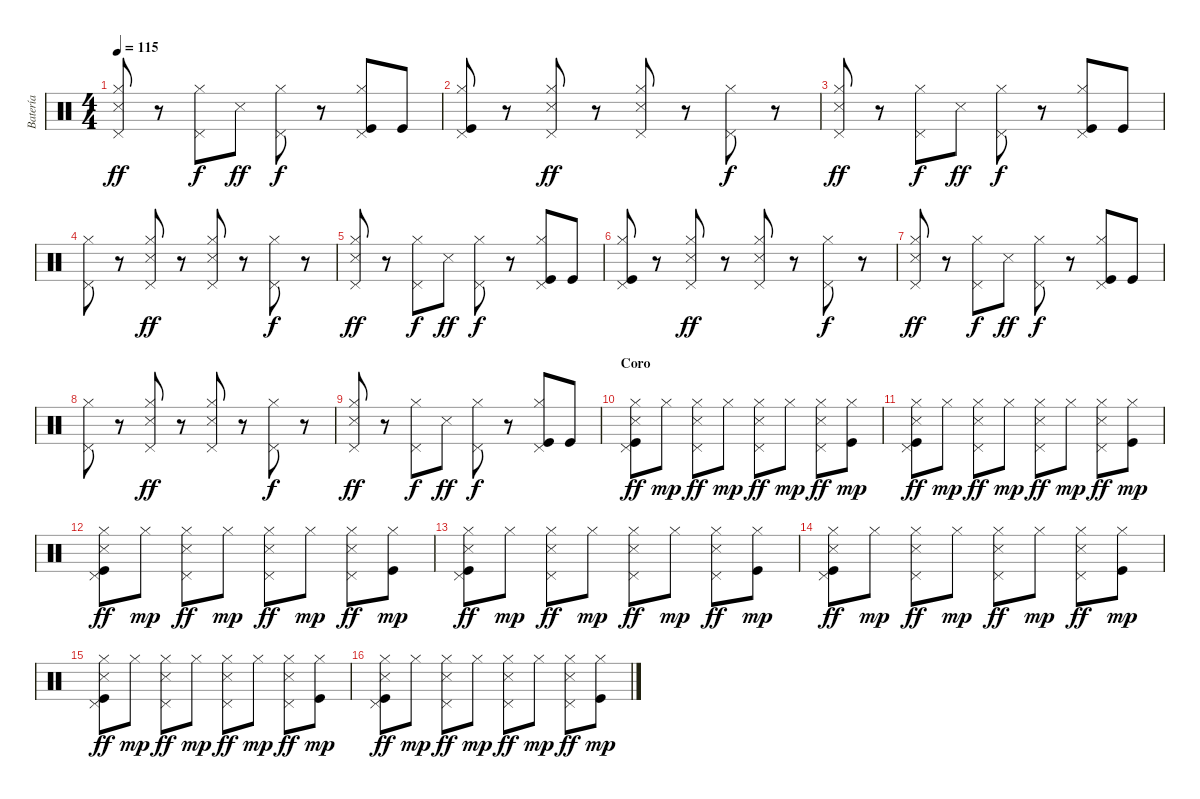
\track ("Batería" "Batería") {instrument percussion}
\staff {score}
\articulation defaults
\ts (4 4)
\tempo 115
\clef neutral
\ks c
("Pedal Hi-Hat (hit)" "Hi-Hat (closed)" "Snare (side stick) 3").8{dy ff} r.8 ("Pedal Hi-Hat (hit)" "Hi-Hat (closed)").8{dy f} "Snare (side stick) 3".8{dy ff} ("Pedal Hi-Hat (hit)" "Hi-Hat (closed)").8{dy f} r.8 ("Pedal Hi-Hat (hit)" "Hi-Hat (closed)" "Kick (hit)").8 "Kick (hit)".8 |
("Pedal Hi-Hat (hit)" "Hi-Hat (closed)" "Kick (hit)").8 r.8 ("Pedal Hi-Hat (hit)" "Hi-Hat (closed)" "Snare (side stick) 3").8{dy ff} r.8 ("Pedal Hi-Hat (hit)" "Hi-Hat (closed)" "Snare (side stick) 3").8 r.8 ("Pedal Hi-Hat (hit)" "Hi-Hat (closed)").8{dy f} r.8 |
("Pedal Hi-Hat (hit)" "Hi-Hat (closed)" "Snare (side stick) 3").8{dy ff} r.8 ("Pedal Hi-Hat (hit)" "Hi-Hat (closed)").8{dy f} "Snare (side stick) 3".8{dy ff} ("Pedal Hi-Hat (hit)" "Hi-Hat (closed)").8{dy f} r.8 ("Pedal Hi-Hat (hit)" "Hi-Hat (closed)" "Kick (hit)").8 "Kick (hit)".8 |
("Pedal Hi-Hat (hit)" "Hi-Hat (closed)").8 r.8 ("Pedal Hi-Hat (hit)" "Hi-Hat (closed)" "Snare (side stick) 3").8{dy ff} r.8 ("Pedal Hi-Hat (hit)" "Hi-Hat (closed)" "Snare (side stick) 3").8 r.8 ("Pedal Hi-Hat (hit)" "Hi-Hat (closed)").8{dy f} r.8 |
("Pedal Hi-Hat (hit)" "Hi-Hat (closed)" "Snare (side stick) 3").8{dy ff} r.8 ("Pedal Hi-Hat (hit)" "Hi-Hat (closed)").8{dy f} "Snare (side stick) 3".8{dy ff} ("Pedal Hi-Hat (hit)" "Hi-Hat (closed)").8{dy f} r.8 ("Pedal Hi-Hat (hit)" "Hi-Hat (closed)" "Kick (hit)").8 "Kick (hit)".8 |
("Pedal Hi-Hat (hit)" "Hi-Hat (closed)" "Kick (hit)").8 r.8 ("Pedal Hi-Hat (hit)" "Hi-Hat (closed)" "Snare (side stick) 3").8{dy ff} r.8 ("Pedal Hi-Hat (hit)" "Hi-Hat (closed)" "Snare (side stick) 3").8 r.8 ("Pedal Hi-Hat (hit)" "Hi-Hat (closed)").8{dy f} r.8 |
("Pedal Hi-Hat (hit)" "Hi-Hat (closed)" "Snare (side stick) 3").8{dy ff} r.8 ("Pedal Hi-Hat (hit)" "Hi-Hat (closed)").8{dy f} "Snare (side stick) 3".8{dy ff} ("Pedal Hi-Hat (hit)" "Hi-Hat (closed)").8{dy f} r.8 ("Pedal Hi-Hat (hit)" "Hi-Hat (closed)" "Kick (hit)").8 "Kick (hit)".8 |
("Pedal Hi-Hat (hit)" "Hi-Hat (closed)").8 r.8 ("Pedal Hi-Hat (hit)" "Hi-Hat (closed)" "Snare (side stick) 3").8{dy ff} r.8 ("Pedal Hi-Hat (hit)" "Hi-Hat (closed)" "Snare (side stick) 3").8 r.8 ("Pedal Hi-Hat (hit)" "Hi-Hat (closed)").8{dy f} r.8 |
("Pedal Hi-Hat (hit)" "Hi-Hat (closed)" "Snare (side stick) 3").8{dy ff} r.8 ("Pedal Hi-Hat (hit)" "Hi-Hat (closed)").8{dy f} "Snare (side stick) 3".8{dy ff} ("Pedal Hi-Hat (hit)" "Hi-Hat (closed)").8{dy f} r.8 ("Pedal Hi-Hat (hit)" "Hi-Hat (closed)" "Kick (hit)").8 "Kick (hit)".8 |
\section ("" "Coro")
("Pedal Hi-Hat (hit)" "Hi-Hat (closed)" "Snare (side stick) 3" "Kick (hit)").8{dy ff} "Hi-Hat (closed)".8{dy mp} ("Pedal Hi-Hat (hit)" "Hi-Hat (closed)" "Snare (side stick) 3").8{dy ff} "Hi-Hat (closed)".8{dy mp} ("Pedal Hi-Hat (hit)" "Hi-Hat (closed)" "Snare (side stick) 3").8{dy ff} "Hi-Hat (closed)".8{dy mp} ("Pedal Hi-Hat (hit)" "Hi-Hat (closed)" "Snare (side stick) 3").8{dy ff} ("Hi-Hat (closed)" "Kick (hit)").8{dy mp} |
("Pedal Hi-Hat (hit)" "Hi-Hat (closed)" "Snare (side stick) 3" "Kick (hit)").8{dy ff} "Hi-Hat (closed)".8{dy mp} ("Pedal Hi-Hat (hit)" "Hi-Hat (closed)" "Snare (side stick) 3").8{dy ff} "Hi-Hat (closed)".8{dy mp} ("Pedal Hi-Hat (hit)" "Hi-Hat (closed)" "Snare (side stick) 3").8{dy ff} "Hi-Hat (closed)".8{dy mp} ("Pedal Hi-Hat (hit)" "Hi-Hat (closed)" "Snare (side stick) 3").8{dy ff} ("Hi-Hat (closed)" "Kick (hit)").8{dy mp} |
("Pedal Hi-Hat (hit)" "Hi-Hat (closed)" "Snare (side stick) 3" "Kick (hit)").8{dy ff} "Hi-Hat (closed)".8{dy mp} ("Pedal Hi-Hat (hit)" "Hi-Hat (closed)" "Snare (side stick) 3").8{dy ff} "Hi-Hat (closed)".8{dy mp} ("Pedal Hi-Hat (hit)" "Hi-Hat (closed)" "Snare (side stick) 3").8{dy ff} "Hi-Hat (closed)".8{dy mp} ("Pedal Hi-Hat (hit)" "Hi-Hat (closed)" "Snare (side stick) 3").8{dy ff} ("Hi-Hat (closed)" "Kick (hit)").8{dy mp} |
("Pedal Hi-Hat (hit)" "Hi-Hat (closed)" "Snare (side stick) 3" "Kick (hit)").8{dy ff} "Hi-Hat (closed)".8{dy mp} ("Pedal Hi-Hat (hit)" "Hi-Hat (closed)" "Snare (side stick) 3").8{dy ff} "Hi-Hat (closed)".8{dy mp} ("Pedal Hi-Hat (hit)" "Hi-Hat (closed)" "Snare (side stick) 3").8{dy ff} "Hi-Hat (closed)".8{dy mp} ("Pedal Hi-Hat (hit)" "Hi-Hat (closed)" "Snare (side stick) 3").8{dy ff} ("Hi-Hat (closed)" "Kick (hit)").8{dy mp} |
("Pedal Hi-Hat (hit)" "Hi-Hat (closed)" "Snare (side stick) 3" "Kick (hit)").8{dy ff} "Hi-Hat (closed)".8{dy mp} ("Pedal Hi-Hat (hit)" "Hi-Hat (closed)" "Snare (side stick) 3").8{dy ff} "Hi-Hat (closed)".8{dy mp} ("Pedal Hi-Hat (hit)" "Hi-Hat (closed)" "Snare (side stick) 3").8{dy ff} "Hi-Hat (closed)".8{dy mp} ("Pedal Hi-Hat (hit)" "Hi-Hat (closed)" "Snare (side stick) 3").8{dy ff} ("Hi-Hat (closed)" "Kick (hit)").8{dy mp} |
("Pedal Hi-Hat (hit)" "Hi-Hat (closed)" "Snare (side stick) 3" "Kick (hit)").8{dy ff} "Hi-Hat (closed)".8{dy mp} ("Pedal Hi-Hat (hit)" "Hi-Hat (closed)" "Snare (side stick) 3").8{dy ff} "Hi-Hat (closed)".8{dy mp} ("Pedal Hi-Hat (hit)" "Hi-Hat (closed)" "Snare (side stick) 3").8{dy ff} "Hi-Hat (closed)".8{dy mp} ("Pedal Hi-Hat (hit)" "Hi-Hat (closed)" "Snare (side stick) 3").8{dy ff} ("Hi-Hat (closed)" "Kick (hit)").8{dy mp} |
("Pedal Hi-Hat (hit)" "Hi-Hat (closed)" "Snare (side stick) 3" "Kick (hit)").8{dy ff} "Hi-Hat (closed)".8{dy mp} ("Pedal Hi-Hat (hit)" "Hi-Hat (closed)" "Snare (side stick) 3").8{dy ff} "Hi-Hat (closed)".8{dy mp} ("Pedal Hi-Hat (hit)" "Hi-Hat (closed)" "Snare (side stick) 3").8{dy ff} "Hi-Hat (closed)".8{dy mp} ("Pedal Hi-Hat (hit)" "Hi-Hat (closed)" "Snare (side stick) 3").8{dy ff} ("Hi-Hat (closed)" "Kick (hit)").8{dy mp}
